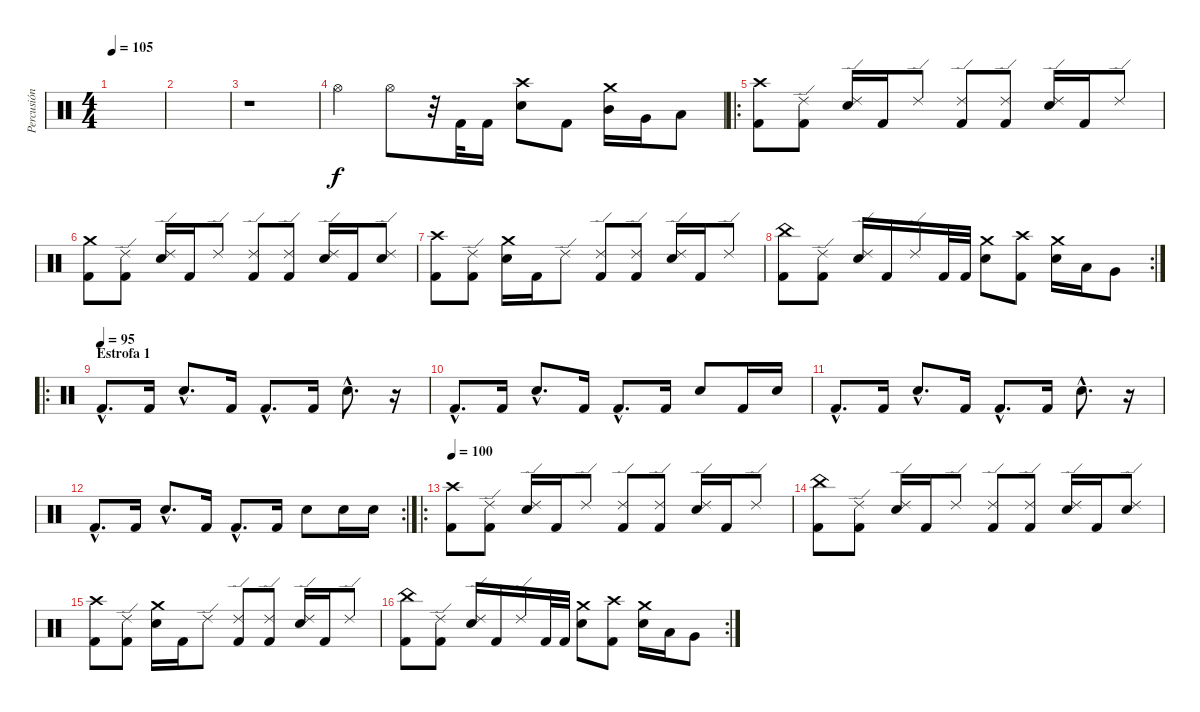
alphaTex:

\track ("Percusión" "Percusión") {instrument percussion}
\staff {score}
\articulation defaults
\ts (4 4)
\tempo 105
\clef neutral
\ks c
|
|
r.1 |
"Hi-Hat (open)".4 "Hi-Hat (open)".8 r.32 "Kick (hit) 2".32 "Kick (hit) 2".16 ("Crash high (hit)" "Electric Snare (hit)").8 "Kick (hit) 2".8 ("Crash medium (hit)" "Mid Tom (hit)").16 "Very Low Tom (hit)".16 "Low Floor Tom (hit)".8 |
\ro
("Crash high (hit)" "Kick (hit) 2").8 ("Ride (edge) 2" "Kick (hit) 2").8 ("Ride (edge) 2" "Electric Snare (hit)").16 "Kick (hit) 2".16 "Ride (edge) 2".8 ("Ride (edge) 2" "Kick (hit) 2").8 ("Ride (edge) 2" "Kick (hit) 2").8 ("Ride (edge) 2" "Electric Snare (hit)").16 "Kick (hit) 2".16 "Ride (edge) 2".8 |
("Crash medium (hit)" "Kick (hit) 2").8 ("Ride (edge) 2" "Kick (hit) 2").8 ("Ride (edge) 2" "Electric Snare (hit)").16 "Kick (hit) 2".16 "Ride (edge) 2".8 ("Ride (edge) 2" "Kick (hit) 2").8 ("Ride (edge) 2" "Kick (hit) 2").8 ("Ride (edge) 2" "Electric Snare (hit)").16 "Kick (hit) 2".16 ("Ride (edge) 2" "Electric Snare (hit)").8 |
("Crash high (hit)" "Kick (hit) 2").8 ("Ride (edge) 2" "Kick (hit) 2").8 ("Crash medium (hit)" "Electric Snare (hit)").16 "Kick (hit) 2".16 "Ride (edge) 2".8 ("Ride (edge) 2" "Kick (hit) 2").8 ("Ride (edge) 2" "Kick (hit) 2").8 ("Ride (edge) 2" "Electric Snare (hit)").16 "Kick (hit) 2".16 "Ride (edge) 2".8 |
\rc 2
("China (hit)" "Kick (hit) 2").8 ("Ride (edge) 2" "Kick (hit) 2").8 ("Ride (edge) 2" "Electric Snare (hit)").16 "Kick (hit) 2".16 "Ride (edge) 2".16 "Kick (hit) 2".32 "Kick (hit) 2".32 ("Crash medium (hit)" "Electric Snare (hit)").8 ("Crash high (hit)" "Kick (hit) 2").8 ("Crash medium (hit)" "Electric Snare (hit)").16 "Low Tom (hit)".16 "Very Low Tom (hit)".8 |
\ro
\section ("" "Estrofa 1")
\tempo (95)
"Kick (hit) 2"{hac}.8{d} "Kick (hit) 2".16 "Electric Snare (hit)"{hac}.8{d} "Kick (hit) 2".16 "Kick (hit) 2"{hac}.8{d} "Kick (hit) 2".16 "Electric Snare (hit)"{hac}.8{d} r.16 |
"Kick (hit) 2"{hac}.8{d} "Kick (hit) 2".16 "Electric Snare (hit)"{hac}.8{d} "Kick (hit) 2".16 "Kick (hit) 2"{hac}.8{d} "Kick (hit) 2".16 "Electric Snare (hit)".8 "Kick (hit) 2".16 "Electric Snare (hit)".16 |
"Kick (hit) 2"{hac}.8{d} "Kick (hit) 2".16 "Electric Snare (hit)"{hac}.8{d} "Kick (hit) 2".16 "Kick (hit) 2"{hac}.8{d} "Kick (hit) 2".16 "Electric Snare (hit)"{hac}.8{d} r.16 |
\rc 2 "Kick (hit) 2"{hac}.8{d} "Kick (hit) 2".16 "Electric Snare (hit)"{hac}.8{d} "Kick (hit) 2".16 "Kick (hit) 2"{hac}.8{d} "Kick (hit) 2".16 "Electric Snare (hit)".8 "Electric Snare (hit)".16 "Electric Snare (hit)".16
|
\ro
\tempo 100
("Crash high (hit)" "Kick (hit) 2").8 ("Ride (edge) 2" "Kick (hit) 2").8 ("Ride (edge) 2" "Electric Snare (hit)").16 "Kick (hit) 2".16 "Ride (edge) 2".8 ("Ride (edge) 2" "Kick (hit) 2").8 ("Ride (edge) 2" "Kick (hit) 2").8 ("Ride (edge) 2" "Electric Snare (hit)").16 "Kick (hit) 2".16 "Ride (edge) 2".8 |
("China (hit)" "Kick (hit) 2").8 ("Ride (edge) 2" "Kick (hit) 2").8 ("Ride (edge) 2" "Electric Snare (hit)").16 "Kick (hit) 2".16 "Ride (edge) 2".8 ("Ride (edge) 2" "Kick (hit) 2").8 ("Ride (edge) 2" "Kick (hit) 2").8 ("Ride (edge) 2" "Electric Snare (hit)").16 "Kick (hit) 2".16 ("Ride (edge) 2" "Electric Snare (hit)").8 |
("Crash high (hit)" "Kick (hit) 2").8 ("Ride (edge) 2" "Kick (hit) 2").8 ("Crash medium (hit)" "Electric Snare (hit)").16 "Kick (hit) 2".16 "Ride (edge) 2".8 ("Ride (edge) 2" "Kick (hit) 2").8 ("Ride (edge) 2" "Kick (hit) 2").8 ("Ride (edge) 2" "Electric Snare (hit)").16 "Kick (hit) 2".16 "Ride (edge) 2".8 |
\rc 2
("China (hit)" "Kick (hit) 2").8 ("Ride (edge) 2" "Kick (hit) 2").8 ("Ride (edge) 2" "Electric Snare (hit)").16 "Kick (hit) 2".16 "Ride (edge) 2".16 "Kick (hit) 2".32 "Kick (hit) 2".32 ("Crash medium (hit)" "Electric Snare (hit)").8 ("Crash high (hit)" "Kick (hit) 2").8 ("Crash medium (hit)" "Electric Snare (hit)").16 "Low Tom (hit)".16 "Very Low Tom (hit)".8
